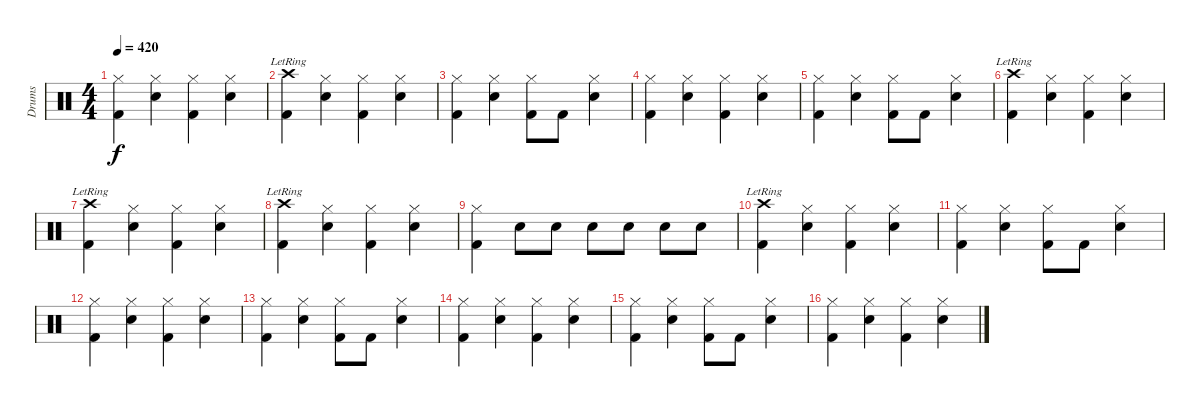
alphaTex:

\track ("Drums" "Drums") {instrument percussion}
\staff {score}
\articulation defaults
\ts (4 4)
\tempo 420
\clef neutral
\ks c
("Hi-Hat (closed)" "Kick (hit) 2").4{dy f} ("Hi-Hat (closed)" "Snare (hit) 2").4 ("Hi-Hat (closed)" "Kick (hit) 2").4 ("Hi-Hat (closed)" "Snare (hit) 2").4 |
("Crash high (hit)"{lr} "Kick (hit) 2").4 ("Hi-Hat (closed)" "Snare (hit) 2").4 ("Hi-Hat (closed)" "Kick (hit) 2").4 ("Hi-Hat (closed)" "Snare (hit) 2").4 |
("Hi-Hat (closed)" "Kick (hit) 2").4 ("Hi-Hat (closed)" "Snare (hit) 2").4 ("Hi-Hat (closed)" "Kick (hit) 2").8 "Kick (hit) 2".8 ("Hi-Hat (closed)" "Snare (hit) 2").4 |
("Hi-Hat (closed)" "Kick (hit) 2").4 ("Hi-Hat (closed)" "Snare (hit) 2").4 ("Hi-Hat (closed)" "Kick (hit) 2").4 ("Hi-Hat (closed)" "Snare (hit) 2").4 |
("Hi-Hat (closed)" "Kick (hit) 2").4 ("Hi-Hat (closed)" "Snare (hit) 2").4 ("Hi-Hat (closed)" "Kick (hit) 2").8 "Kick (hit) 2".8 ("Hi-Hat (closed)" "Snare (hit) 2").4 |
("Crash high (hit)"{lr} "Kick (hit) 2").4 ("Hi-Hat (closed)" "Snare (hit) 2").4 ("Hi-Hat (closed)" "Kick (hit) 2").4 ("Hi-Hat (closed)" "Snare (hit) 2").4 |
("Crash high (hit)"{lr} "Kick (hit) 2").4 ("Hi-Hat (closed)" "Snare (hit) 2").4 ("Hi-Hat (closed)" "Kick (hit) 2").4 ("Hi-Hat (closed)" "Snare (hit) 2").4 |
("Crash high (hit)"{lr} "Kick (hit) 2").4 ("Hi-Hat (closed)" "Snare (hit) 2").4 ("Hi-Hat (closed)" "Kick (hit) 2").4 ("Hi-Hat (closed)" "Snare (hit) 2").4 |
("Hi-Hat (closed)" "Kick (hit) 2").4 "Snare (hit) 2".8 "Snare (hit) 2".8 "Snare (hit) 2".8 "Snare (hit) 2".8 "Snare (hit) 2".8 "Snare (hit) 2".8 |
("Crash high (hit)"{lr} "Kick (hit) 2").4 ("Hi-Hat (closed)" "Snare (hit) 2").4 ("Hi-Hat (closed)" "Kick (hit) 2").4 ("Hi-Hat (closed)" "Snare (hit) 2").4 |
("Hi-Hat (closed)" "Kick (hit) 2").4 ("Hi-Hat (closed)" "Snare (hit) 2").4 ("Hi-Hat (closed)" "Kick (hit) 2").8 "Kick (hit) 2".8 ("Hi-Hat (closed)" "Snare (hit) 2").4 |
("Hi-Hat (closed)" "Kick (hit) 2").4 ("Hi-Hat (closed)" "Snare (hit) 2").4 ("Hi-Hat (closed)" "Kick (hit) 2").4 ("Hi-Hat (closed)" "Snare (hit) 2").4 |
("Hi-Hat (closed)" "Kick (hit) 2").4 ("Hi-Hat (closed)" "Snare (hit) 2").4 ("Hi-Hat (closed)" "Kick (hit) 2").8 "Kick (hit) 2".8 ("Hi-Hat (closed)" "Snare (hit) 2").4 |
("Hi-Hat (closed)" "Kick (hit) 2").4 ("Hi-Hat (closed)" "Snare (hit) 2").4 ("Hi-Hat (closed)" "Kick (hit) 2").4 ("Hi-Hat (closed)" "Snare (hit) 2").4 |
("Hi-Hat (closed)" "Kick (hit) 2").4 ("Hi-Hat (closed)" "Snare (hit) 2").4 ("Hi-Hat (closed)" "Kick (hit) 2").8 "Kick (hit) 2".8 ("Hi-Hat (closed)" "Snare (hit) 2").4 |
("Hi-Hat (closed)" "Kick (hit) 2").4 ("Hi-Hat (closed)" "Snare (hit) 2").4 ("Hi-Hat (closed)" "Kick (hit) 2").4 ("Hi-Hat (closed)" "Snare (hit) 2").4
